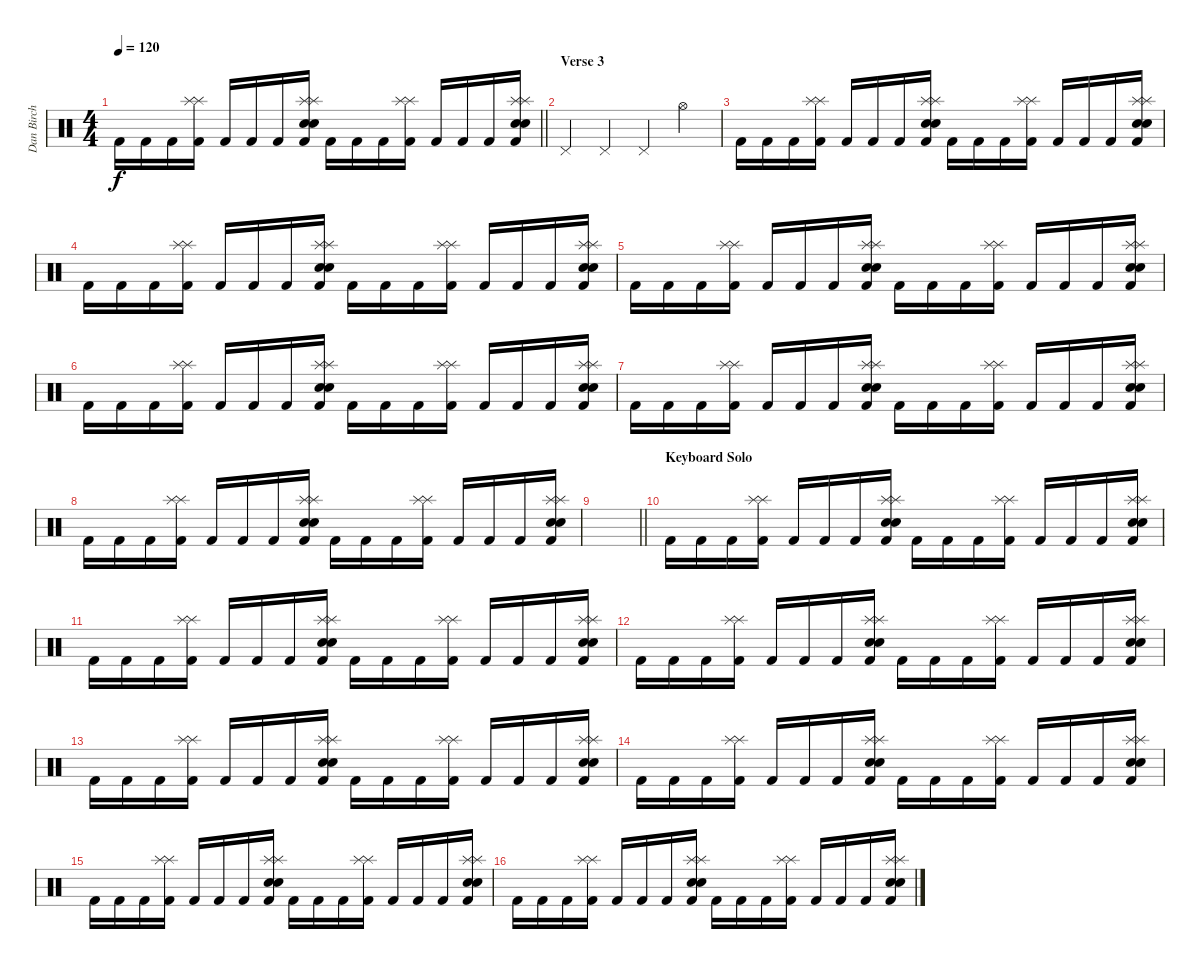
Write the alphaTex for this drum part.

\track ("Dan Birch" "Dan Birch") {instrument percussion}
\staff {score}
\articulation defaults
\ts (4 4)
\tempo 120
\clef neutral
\barLineRight lightlight
\ks c "Kick (hit) 2".16{dy f} "Kick (hit) 2".16 "Kick (hit) 2".16
("Splash (hit)" "Splash (hit)" "Kick (hit) 2").16 "Kick (hit) 2".16 "Kick (hit) 2".16 "Kick (hit) 2".16 ("Splash (hit)" "Splash (hit)" "Kick (hit) 2" "Snare (hit) 2" "Snare (hit) 2").16 "Kick (hit) 2".16 "Kick (hit) 2".16 "Kick (hit) 2".16 ("Splash (hit)" "Splash (hit)" "Kick (hit) 2").16 "Kick (hit) 2".16 "Kick (hit) 2".16 "Kick (hit) 2".16 ("Splash (hit)" "Splash (hit)" "Kick (hit) 2" "Snare (hit) 2" "Snare (hit) 2").16 |
\section ("" "Verse 3")
"Pedal Hi-Hat (hit)".4 "Pedal Hi-Hat (hit)".4 "Pedal Hi-Hat (hit)".4 "Hi-Hat (open)".4 |
"Kick (hit) 2".16 "Kick (hit) 2".16 "Kick (hit) 2".16 ("Splash (hit)" "Splash (hit)" "Kick (hit) 2").16 "Kick (hit) 2".16 "Kick (hit) 2".16 "Kick (hit) 2".16 ("Splash (hit)" "Splash (hit)" "Kick (hit) 2" "Snare (hit) 2" "Snare (hit) 2").16 "Kick (hit) 2".16 "Kick (hit) 2".16 "Kick (hit) 2".16 ("Splash (hit)" "Splash (hit)" "Kick (hit) 2").16 "Kick (hit) 2".16 "Kick (hit) 2".16 "Kick (hit) 2".16 ("Splash (hit)" "Splash (hit)" "Kick (hit) 2" "Snare (hit) 2" "Snare (hit) 2").16 |
"Kick (hit) 2".16 "Kick (hit) 2".16 "Kick (hit) 2".16 ("Splash (hit)" "Splash (hit)" "Kick (hit) 2").16 "Kick (hit) 2".16 "Kick (hit) 2".16 "Kick (hit) 2".16 ("Splash (hit)" "Splash (hit)" "Kick (hit) 2" "Snare (hit) 2" "Snare (hit) 2").16 "Kick (hit) 2".16 "Kick (hit) 2".16 "Kick (hit) 2".16 ("Splash (hit)" "Splash (hit)" "Kick (hit) 2").16 "Kick (hit) 2".16 "Kick (hit) 2".16 "Kick (hit) 2".16 ("Splash (hit)" "Splash (hit)" "Kick (hit) 2" "Snare (hit) 2" "Snare (hit) 2").16 |
"Kick (hit) 2".16 "Kick (hit) 2".16 "Kick (hit) 2".16 ("Splash (hit)" "Splash (hit)" "Kick (hit) 2").16 "Kick (hit) 2".16 "Kick (hit) 2".16 "Kick (hit) 2".16 ("Splash (hit)" "Splash (hit)" "Kick (hit) 2" "Snare (hit) 2" "Snare (hit) 2").16 "Kick (hit) 2".16 "Kick (hit) 2".16 "Kick (hit) 2".16 ("Splash (hit)" "Splash (hit)" "Kick (hit) 2").16 "Kick (hit) 2".16 "Kick (hit) 2".16 "Kick (hit) 2".16 ("Splash (hit)" "Splash (hit)" "Kick (hit) 2" "Snare (hit) 2" "Snare (hit) 2").16 |
"Kick (hit) 2".16 "Kick (hit) 2".16 "Kick (hit) 2".16 ("Splash (hit)" "Splash (hit)" "Kick (hit) 2").16 "Kick (hit) 2".16 "Kick (hit) 2".16 "Kick (hit) 2".16 ("Splash (hit)" "Splash (hit)" "Kick (hit) 2" "Snare (hit) 2" "Snare (hit) 2").16 "Kick (hit) 2".16 "Kick (hit) 2".16 "Kick (hit) 2".16 ("Splash (hit)" "Splash (hit)" "Kick (hit) 2").16 "Kick (hit) 2".16 "Kick (hit) 2".16 "Kick (hit) 2".16 ("Splash (hit)" "Splash (hit)" "Kick (hit) 2" "Snare (hit) 2" "Snare (hit) 2").16 |
"Kick (hit) 2".16 "Kick (hit) 2".16 "Kick (hit) 2".16 ("Splash (hit)" "Splash (hit)" "Kick (hit) 2").16 "Kick (hit) 2".16 "Kick (hit) 2".16 "Kick (hit) 2".16 ("Splash (hit)" "Splash (hit)" "Kick (hit) 2" "Snare (hit) 2" "Snare (hit) 2").16 "Kick (hit) 2".16 "Kick (hit) 2".16 "Kick (hit) 2".16 ("Splash (hit)" "Splash (hit)" "Kick (hit) 2").16 "Kick (hit) 2".16 "Kick (hit) 2".16 "Kick (hit) 2".16 ("Splash (hit)" "Splash (hit)" "Kick (hit) 2" "Snare (hit) 2" "Snare (hit) 2").16 |
"Kick (hit) 2".16 "Kick (hit) 2".16 "Kick (hit) 2".16 ("Splash (hit)" "Splash (hit)" "Kick (hit) 2").16 "Kick (hit) 2".16 "Kick (hit) 2".16 "Kick (hit) 2".16 ("Splash (hit)" "Splash (hit)" "Kick (hit) 2" "Snare (hit) 2" "Snare (hit) 2").16 "Kick (hit) 2".16 "Kick (hit) 2".16 "Kick (hit) 2".16 ("Splash (hit)" "Splash (hit)" "Kick (hit) 2").16 "Kick (hit) 2".16 "Kick (hit) 2".16 "Kick (hit) 2".16 ("Splash (hit)" "Splash (hit)" "Kick (hit) 2" "Snare (hit) 2" "Snare (hit) 2").16 |
\barLineRight lightlight
|
\section ("" "Keyboard Solo")
"Kick (hit) 2".16 "Kick (hit) 2".16 "Kick (hit) 2".16 ("Splash (hit)" "Splash (hit)" "Kick (hit) 2").16 "Kick (hit) 2".16 "Kick (hit) 2".16 "Kick (hit) 2".16 ("Splash (hit)" "Splash (hit)" "Kick (hit) 2" "Snare (hit) 2" "Snare (hit) 2").16 "Kick (hit) 2".16 "Kick (hit) 2".16 "Kick (hit) 2".16 ("Splash (hit)" "Splash (hit)" "Kick (hit) 2").16 "Kick (hit) 2".16 "Kick (hit) 2".16 "Kick (hit) 2".16 ("Splash (hit)" "Splash (hit)" "Kick (hit) 2" "Snare (hit) 2" "Snare (hit) 2").16 |
"Kick (hit) 2".16 "Kick (hit) 2".16 "Kick (hit) 2".16 ("Splash (hit)" "Splash (hit)" "Kick (hit) 2").16 "Kick (hit) 2".16 "Kick (hit) 2".16 "Kick (hit) 2".16 ("Splash (hit)" "Splash (hit)" "Kick (hit) 2" "Snare (hit) 2" "Snare (hit) 2").16 "Kick (hit) 2".16 "Kick (hit) 2".16 "Kick (hit) 2".16 ("Splash (hit)" "Splash (hit)" "Kick (hit) 2").16 "Kick (hit) 2".16 "Kick (hit) 2".16 "Kick (hit) 2".16 ("Splash (hit)" "Splash (hit)" "Kick (hit) 2" "Snare (hit) 2" "Snare (hit) 2").16 |
"Kick (hit) 2".16 "Kick (hit) 2".16 "Kick (hit) 2".16 ("Splash (hit)" "Splash (hit)" "Kick (hit) 2").16 "Kick (hit) 2".16 "Kick (hit) 2".16 "Kick (hit) 2".16 ("Splash (hit)" "Splash (hit)" "Kick (hit) 2" "Snare (hit) 2" "Snare (hit) 2").16 "Kick (hit) 2".16 "Kick (hit) 2".16 "Kick (hit) 2".16 ("Splash (hit)" "Splash (hit)" "Kick (hit) 2").16 "Kick (hit) 2".16 "Kick (hit) 2".16 "Kick (hit) 2".16 ("Splash (hit)" "Splash (hit)" "Kick (hit) 2" "Snare (hit) 2" "Snare (hit) 2").16 |
"Kick (hit) 2".16 "Kick (hit) 2".16 "Kick (hit) 2".16 ("Splash (hit)" "Splash (hit)" "Kick (hit) 2").16 "Kick (hit) 2".16 "Kick (hit) 2".16 "Kick (hit) 2".16 ("Splash (hit)" "Splash (hit)" "Kick (hit) 2" "Snare (hit) 2" "Snare (hit) 2").16 "Kick (hit) 2".16 "Kick (hit) 2".16 "Kick (hit) 2".16 ("Splash (hit)" "Splash (hit)" "Kick (hit) 2").16 "Kick (hit) 2".16 "Kick (hit) 2".16 "Kick (hit) 2".16 ("Splash (hit)" "Splash (hit)" "Kick (hit) 2" "Snare (hit) 2" "Snare (hit) 2").16 |
"Kick (hit) 2".16 "Kick (hit) 2".16 "Kick (hit) 2".16 ("Splash (hit)" "Splash (hit)" "Kick (hit) 2").16 "Kick (hit) 2".16 "Kick (hit) 2".16 "Kick (hit) 2".16 ("Splash (hit)" "Splash (hit)" "Kick (hit) 2" "Snare (hit) 2" "Snare (hit) 2").16 "Kick (hit) 2".16 "Kick (hit) 2".16 "Kick (hit) 2".16 ("Splash (hit)" "Splash (hit)" "Kick (hit) 2").16 "Kick (hit) 2".16 "Kick (hit) 2".16 "Kick (hit) 2".16 ("Splash (hit)" "Splash (hit)" "Kick (hit) 2" "Snare (hit) 2" "Snare (hit) 2").16 |
"Kick (hit) 2".16 "Kick (hit) 2".16 "Kick (hit) 2".16 ("Splash (hit)" "Splash (hit)" "Kick (hit) 2").16 "Kick (hit) 2".16 "Kick (hit) 2".16 "Kick (hit) 2".16 ("Splash (hit)" "Splash (hit)" "Kick (hit) 2" "Snare (hit) 2" "Snare (hit) 2").16 "Kick (hit) 2".16 "Kick (hit) 2".16 "Kick (hit) 2".16 ("Splash (hit)" "Splash (hit)" "Kick (hit) 2").16 "Kick (hit) 2".16 "Kick (hit) 2".16 "Kick (hit) 2".16 ("Splash (hit)" "Splash (hit)" "Kick (hit) 2" "Snare (hit) 2" "Snare (hit) 2").16 |
"Kick (hit) 2".16 "Kick (hit) 2".16 "Kick (hit) 2".16 ("Splash (hit)" "Splash (hit)" "Kick (hit) 2").16 "Kick (hit) 2".16 "Kick (hit) 2".16 "Kick (hit) 2".16 ("Splash (hit)" "Splash (hit)" "Kick (hit) 2" "Snare (hit) 2" "Snare (hit) 2").16 "Kick (hit) 2".16 "Kick (hit) 2".16 "Kick (hit) 2".16 ("Splash (hit)" "Splash (hit)" "Kick (hit) 2").16 "Kick (hit) 2".16 "Kick (hit) 2".16 "Kick (hit) 2".16 ("Splash (hit)" "Splash (hit)" "Kick (hit) 2" "Snare (hit) 2" "Snare (hit) 2").16
